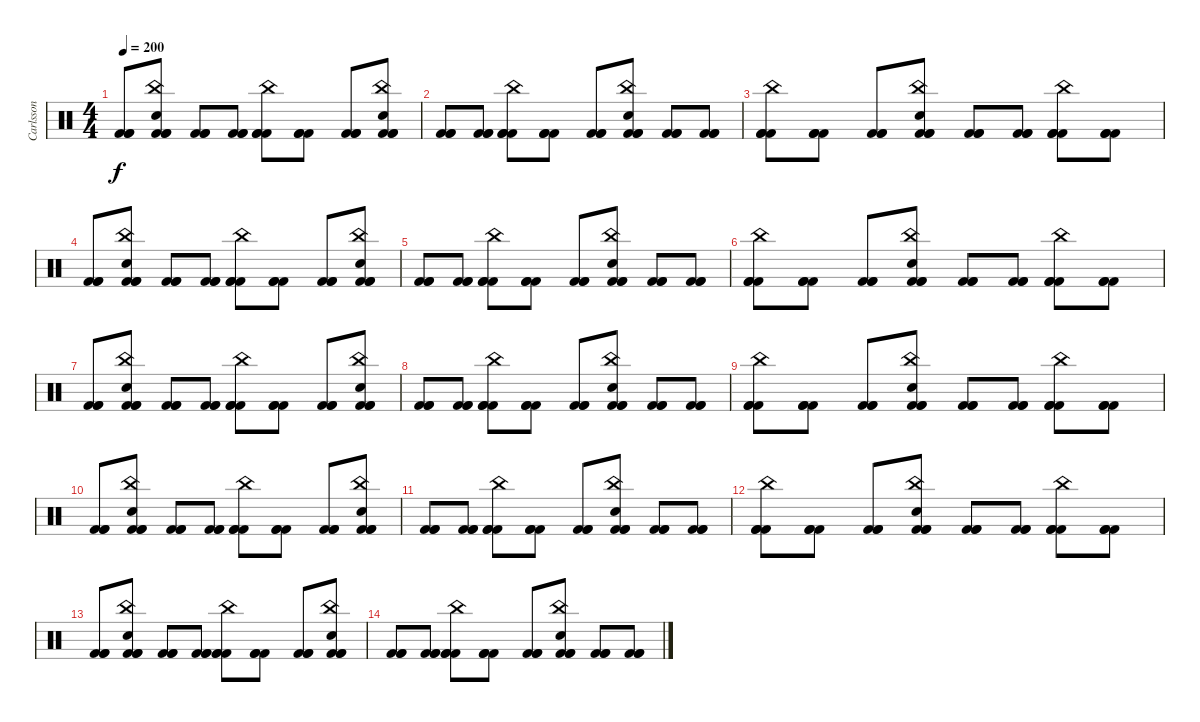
\track ("Carlsson" "Carlsson") {instrument percussion}
\staff {score}
\articulation defaults
\ts (4 4)
\tempo 200
\clef neutral
\ks c
("Kick (hit) 2" "Kick (hit) 2" "Kick (hit) 2").8{dy f} ("China (hit)" "Snare (hit) 2" "Kick (hit) 2" "Kick (hit) 2" "Kick (hit) 2").8 ("Kick (hit) 2" "Kick (hit) 2" "Kick (hit) 2").8 ("Kick (hit) 2" "Kick (hit) 2" "Kick (hit) 2").8 ("China (hit)" "Kick (hit) 2" "Kick (hit) 2" "Kick (hit) 2").8 ("Kick (hit) 2" "Kick (hit) 2" "Kick (hit) 2").8 ("Kick (hit) 2" "Kick (hit) 2" "Kick (hit) 2").8 ("China (hit)" "Snare (hit) 2" "Kick (hit) 2" "Kick (hit) 2" "Kick (hit) 2").8 |
("Kick (hit) 2" "Kick (hit) 2" "Kick (hit) 2").8 ("Kick (hit) 2" "Kick (hit) 2" "Kick (hit) 2").8 ("China (hit)" "Kick (hit) 2" "Kick (hit) 2" "Kick (hit) 2").8 ("Kick (hit) 2" "Kick (hit) 2" "Kick (hit) 2").8 ("Kick (hit) 2" "Kick (hit) 2" "Kick (hit) 2").8 ("China (hit)" "Snare (hit) 2" "Kick (hit) 2" "Kick (hit) 2" "Kick (hit) 2").8 ("Kick (hit) 2" "Kick (hit) 2" "Kick (hit) 2").8 ("Kick (hit) 2" "Kick (hit) 2" "Kick (hit) 2").8 |
("China (hit)" "Kick (hit) 2" "Kick (hit) 2" "Kick (hit) 2").8 ("Kick (hit) 2" "Kick (hit) 2" "Kick (hit) 2").8 ("Kick (hit) 2" "Kick (hit) 2" "Kick (hit) 2").8 ("China (hit)" "Snare (hit) 2" "Kick (hit) 2" "Kick (hit) 2" "Kick (hit) 2").8 ("Kick (hit) 2" "Kick (hit) 2" "Kick (hit) 2").8 ("Kick (hit) 2" "Kick (hit) 2" "Kick (hit) 2").8 ("China (hit)" "Kick (hit) 2" "Kick (hit) 2" "Kick (hit) 2").8 ("Kick (hit) 2" "Kick (hit) 2" "Kick (hit) 2").8 |
("Kick (hit) 2" "Kick (hit) 2" "Kick (hit) 2").8 ("China (hit)" "Snare (hit) 2" "Kick (hit) 2" "Kick (hit) 2" "Kick (hit) 2").8 ("Kick (hit) 2" "Kick (hit) 2" "Kick (hit) 2").8 ("Kick (hit) 2" "Kick (hit) 2" "Kick (hit) 2").8 ("China (hit)" "Kick (hit) 2" "Kick (hit) 2" "Kick (hit) 2").8 ("Kick (hit) 2" "Kick (hit) 2" "Kick (hit) 2").8 ("Kick (hit) 2" "Kick (hit) 2" "Kick (hit) 2").8 ("China (hit)" "Snare (hit) 2" "Kick (hit) 2" "Kick (hit) 2" "Kick (hit) 2").8 |
("Kick (hit) 2" "Kick (hit) 2" "Kick (hit) 2").8 ("Kick (hit) 2" "Kick (hit) 2" "Kick (hit) 2").8 ("China (hit)" "Kick (hit) 2" "Kick (hit) 2" "Kick (hit) 2").8 ("Kick (hit) 2" "Kick (hit) 2" "Kick (hit) 2").8 ("Kick (hit) 2" "Kick (hit) 2" "Kick (hit) 2").8 ("China (hit)" "Snare (hit) 2" "Kick (hit) 2" "Kick (hit) 2" "Kick (hit) 2").8 ("Kick (hit) 2" "Kick (hit) 2" "Kick (hit) 2").8 ("Kick (hit) 2" "Kick (hit) 2" "Kick (hit) 2").8 |
("China (hit)" "Kick (hit) 2" "Kick (hit) 2" "Kick (hit) 2").8 ("Kick (hit) 2" "Kick (hit) 2" "Kick (hit) 2").8 ("Kick (hit) 2" "Kick (hit) 2" "Kick (hit) 2").8 ("China (hit)" "Snare (hit) 2" "Kick (hit) 2" "Kick (hit) 2" "Kick (hit) 2").8 ("Kick (hit) 2" "Kick (hit) 2" "Kick (hit) 2").8 ("Kick (hit) 2" "Kick (hit) 2" "Kick (hit) 2").8 ("China (hit)" "Kick (hit) 2" "Kick (hit) 2" "Kick (hit) 2").8 ("Kick (hit) 2" "Kick (hit) 2" "Kick (hit) 2").8 |
("Kick (hit) 2" "Kick (hit) 2" "Kick (hit) 2").8 ("China (hit)" "Snare (hit) 2" "Kick (hit) 2" "Kick (hit) 2" "Kick (hit) 2").8 ("Kick (hit) 2" "Kick (hit) 2" "Kick (hit) 2").8 ("Kick (hit) 2" "Kick (hit) 2" "Kick (hit) 2").8 ("China (hit)" "Kick (hit) 2" "Kick (hit) 2" "Kick (hit) 2").8 ("Kick (hit) 2" "Kick (hit) 2" "Kick (hit) 2").8 ("Kick (hit) 2" "Kick (hit) 2" "Kick (hit) 2").8 ("China (hit)" "Snare (hit) 2" "Kick (hit) 2" "Kick (hit) 2" "Kick (hit) 2").8 |
("Kick (hit) 2" "Kick (hit) 2" "Kick (hit) 2").8 ("Kick (hit) 2" "Kick (hit) 2" "Kick (hit) 2").8 ("China (hit)" "Kick (hit) 2" "Kick (hit) 2" "Kick (hit) 2").8 ("Kick (hit) 2" "Kick (hit) 2" "Kick (hit) 2").8 ("Kick (hit) 2" "Kick (hit) 2" "Kick (hit) 2").8 ("China (hit)" "Snare (hit) 2" "Kick (hit) 2" "Kick (hit) 2" "Kick (hit) 2").8 ("Kick (hit) 2" "Kick (hit) 2" "Kick (hit) 2").8 ("Kick (hit) 2" "Kick (hit) 2" "Kick (hit) 2").8 |
("China (hit)" "Kick (hit) 2" "Kick (hit) 2" "Kick (hit) 2").8 ("Kick (hit) 2" "Kick (hit) 2" "Kick (hit) 2").8 ("Kick (hit) 2" "Kick (hit) 2" "Kick (hit) 2").8 ("China (hit)" "Snare (hit) 2" "Kick (hit) 2" "Kick (hit) 2" "Kick (hit) 2").8 ("Kick (hit) 2" "Kick (hit) 2" "Kick (hit) 2").8 ("Kick (hit) 2" "Kick (hit) 2" "Kick (hit) 2").8 ("China (hit)" "Kick (hit) 2" "Kick (hit) 2" "Kick (hit) 2").8 ("Kick (hit) 2" "Kick (hit) 2" "Kick (hit) 2").8 |
("Kick (hit) 2" "Kick (hit) 2" "Kick (hit) 2").8 ("China (hit)" "Snare (hit) 2" "Kick (hit) 2" "Kick (hit) 2" "Kick (hit) 2").8 ("Kick (hit) 2" "Kick (hit) 2" "Kick (hit) 2").8 ("Kick (hit) 2" "Kick (hit) 2" "Kick (hit) 2").8 ("China (hit)" "Kick (hit) 2" "Kick (hit) 2" "Kick (hit) 2").8 ("Kick (hit) 2" "Kick (hit) 2" "Kick (hit) 2").8 ("Kick (hit) 2" "Kick (hit) 2" "Kick (hit) 2").8 ("China (hit)" "Snare (hit) 2" "Kick (hit) 2" "Kick (hit) 2" "Kick (hit) 2").8 |
("Kick (hit) 2" "Kick (hit) 2" "Kick (hit) 2").8 ("Kick (hit) 2" "Kick (hit) 2" "Kick (hit) 2").8 ("China (hit)" "Kick (hit) 2" "Kick (hit) 2" "Kick (hit) 2").8 ("Kick (hit) 2" "Kick (hit) 2" "Kick (hit) 2").8 ("Kick (hit) 2" "Kick (hit) 2" "Kick (hit) 2").8 ("China (hit)" "Snare (hit) 2" "Kick (hit) 2" "Kick (hit) 2" "Kick (hit) 2").8 ("Kick (hit) 2" "Kick (hit) 2" "Kick (hit) 2").8 ("Kick (hit) 2" "Kick (hit) 2" "Kick (hit) 2").8 |
("China (hit)" "Kick (hit) 2" "Kick (hit) 2" "Kick (hit) 2").8 ("Kick (hit) 2" "Kick (hit) 2" "Kick (hit) 2").8 ("Kick (hit) 2" "Kick (hit) 2" "Kick (hit) 2").8 ("China (hit)" "Snare (hit) 2" "Kick (hit) 2" "Kick (hit) 2" "Kick (hit) 2").8 ("Kick (hit) 2" "Kick (hit) 2" "Kick (hit) 2").8 ("Kick (hit) 2" "Kick (hit) 2" "Kick (hit) 2").8 ("China (hit)" "Kick (hit) 2" "Kick (hit) 2" "Kick (hit) 2").8 ("Kick (hit) 2" "Kick (hit) 2" "Kick (hit) 2").8 |
("Kick (hit) 2" "Kick (hit) 2" "Kick (hit) 2").8 ("China (hit)" "Snare (hit) 2" "Kick (hit) 2" "Kick (hit) 2" "Kick (hit) 2").8 ("Kick (hit) 2" "Kick (hit) 2" "Kick (hit) 2").8 ("Kick (hit) 2" "Kick (hit) 2" "Kick (hit) 2").8 ("China (hit)" "Kick (hit) 2" "Kick (hit) 2" "Kick (hit) 2").8 ("Kick (hit) 2" "Kick (hit) 2" "Kick (hit) 2").8 ("Kick (hit) 2" "Kick (hit) 2" "Kick (hit) 2").8 ("China (hit)" "Snare (hit) 2" "Kick (hit) 2" "Kick (hit) 2" "Kick (hit) 2").8 |
("Kick (hit) 2" "Kick (hit) 2" "Kick (hit) 2").8 ("Kick (hit) 2" "Kick (hit) 2" "Kick (hit) 2").8 ("China (hit)" "Kick (hit) 2" "Kick (hit) 2" "Kick (hit) 2").8 ("Kick (hit) 2" "Kick (hit) 2" "Kick (hit) 2").8 ("Kick (hit) 2" "Kick (hit) 2" "Kick (hit) 2").8 ("China (hit)" "Snare (hit) 2" "Kick (hit) 2" "Kick (hit) 2" "Kick (hit) 2").8 ("Kick (hit) 2" "Kick (hit) 2" "Kick (hit) 2").8 ("Kick (hit) 2" "Kick (hit) 2" "Kick (hit) 2").8
